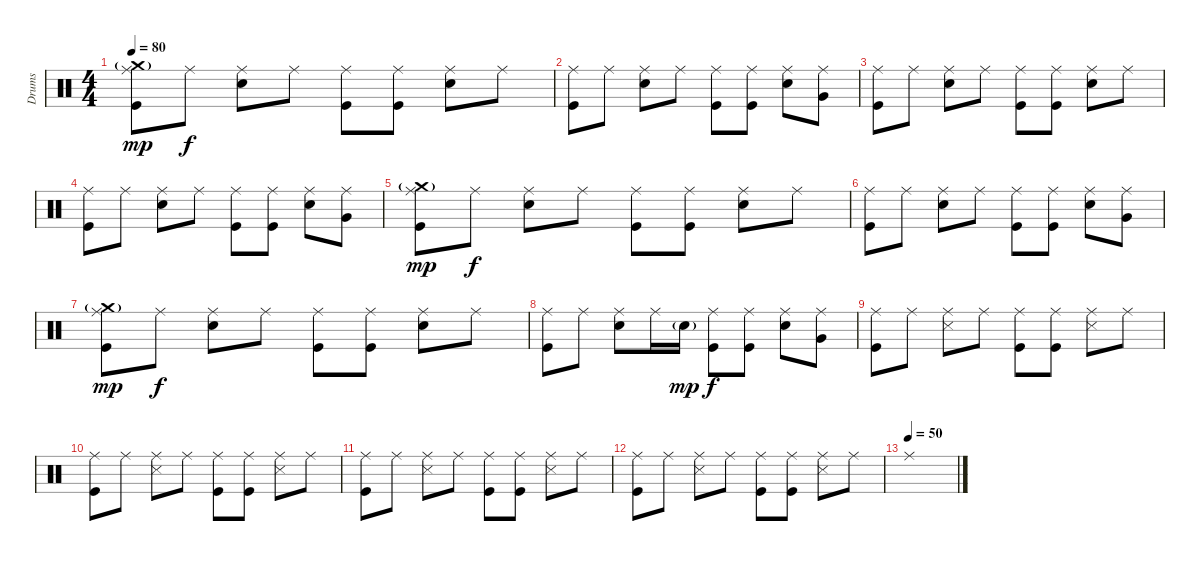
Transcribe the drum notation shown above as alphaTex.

\track ("Drums" "Drums") {instrument percussion}
\staff {score}
\articulation defaults
\ts (4 4)
\tempo 80
\clef neutral
\ks c
("Ride (middle)" "Crash medium (hit)"{g} "Kick (hit)").8{dy mp} "Ride (middle)".8{dy f} ("Ride (middle)" "Snare (hit) 2").8 "Ride (middle)".8 ("Ride (middle)" "Kick (hit)").8 ("Ride (middle)" "Kick (hit)").8 ("Ride (middle)" "Snare (hit) 2").8 "Ride (middle)".8 |
("Ride (middle)" "Kick (hit)").8 "Ride (middle)".8 ("Ride (middle)" "Snare (hit) 2").8 "Ride (middle)".8 ("Ride (middle)" "Kick (hit)").8 ("Ride (middle)" "Kick (hit)").8 ("Ride (middle)" "Snare (hit) 2").8 ("Ride (middle)" "Very Low Tom (hit)").8 |
("Ride (middle)" "Kick (hit)").8 "Ride (middle)".8 ("Ride (middle)" "Snare (hit) 2").8 "Ride (middle)".8 ("Ride (middle)" "Kick (hit)").8 ("Ride (middle)" "Kick (hit)").8 ("Ride (middle)" "Snare (hit) 2").8 "Ride (middle)".8 |
("Ride (middle)" "Kick (hit)").8 "Ride (middle)".8 ("Ride (middle)" "Snare (hit) 2").8 "Ride (middle)".8 ("Ride (middle)" "Kick (hit)").8 ("Ride (middle)" "Kick (hit)").8 ("Ride (middle)" "Snare (hit) 2").8 ("Ride (middle)" "Very Low Tom (hit)").8 |
("Ride (middle)" "Crash medium (hit)"{g} "Kick (hit)").8{dy mp} "Ride (middle)".8{dy f} ("Ride (middle)" "Snare (hit) 2").8 "Ride (middle)".8 ("Ride (middle)" "Kick (hit)").8 ("Ride (middle)" "Kick (hit)").8 ("Ride (middle)" "Snare (hit) 2").8 "Ride (middle)".8 |
("Ride (middle)" "Kick (hit)").8 "Ride (middle)".8 ("Ride (middle)" "Snare (hit) 2").8 "Ride (middle)".8 ("Ride (middle)" "Kick (hit)").8 ("Ride (middle)" "Kick (hit)").8 ("Ride (middle)" "Snare (hit) 2").8 ("Ride (middle)" "Very Low Tom (hit)").8 |
("Ride (middle)" "Crash medium (hit)"{g} "Kick (hit)").8{dy mp} "Ride (middle)".8{dy f} ("Ride (middle)" "Snare (hit) 2").8 "Ride (middle)".8 ("Ride (middle)" "Kick (hit)").8 ("Ride (middle)" "Kick (hit)").8 ("Ride (middle)" "Snare (hit) 2").8 "Ride (middle)".8 |
("Ride (middle)" "Kick (hit)").8 "Ride (middle)".8 ("Ride (middle)" "Snare (hit) 2").8 "Ride (middle)".16 "Snare (hit) 2"{g}.16{dy mp} ("Ride (middle)" "Kick (hit)").8{dy f} ("Ride (middle)" "Kick (hit)").8 ("Ride (middle)" "Snare (hit) 2").8 ("Ride (middle)" "Very Low Tom (hit)").8 |
("Ride (middle)" "Kick (hit)").8 "Ride (middle)".8 ("Ride (middle)" "Snare (side stick) 3").8 "Ride (middle)".8 ("Ride (middle)" "Kick (hit)").8 ("Ride (middle)" "Kick (hit)").8 ("Ride (middle)" "Snare (side stick) 3").8 "Ride (middle)".8 |
("Ride (middle)" "Kick (hit)").8 "Ride (middle)".8 ("Ride (middle)" "Snare (side stick) 3").8 "Ride (middle)".8 ("Ride (middle)" "Kick (hit)").8 ("Ride (middle)" "Kick (hit)").8 ("Ride (middle)" "Snare (side stick) 3").8 "Ride (middle)".8 |
("Ride (middle)" "Kick (hit)").8 "Ride (middle)".8 ("Ride (middle)" "Snare (side stick) 3").8 "Ride (middle)".8 ("Ride (middle)" "Kick (hit)").8 ("Ride (middle)" "Kick (hit)").8 ("Ride (middle)" "Snare (side stick) 3").8 "Ride (middle)".8 |
("Ride (middle)" "Kick (hit)").8 "Ride (middle)".8 ("Ride (middle)" "Snare (side stick) 3").8 "Ride (middle)".8 ("Ride (middle)" "Kick (hit)").8 ("Ride (middle)" "Kick (hit)").8 ("Ride (middle)" "Snare (side stick) 3").8 "Ride (middle)".8 |
\tempo (50)
"Ride (middle)".1
